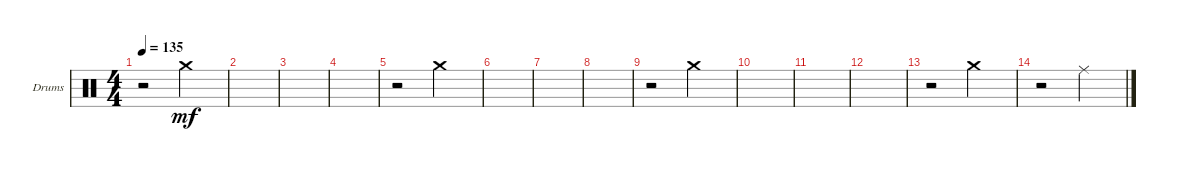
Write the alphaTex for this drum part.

\bracketExtendMode groupsimilarinstruments
\firstSystemTrackNameOrientation horizontal
\otherSystemsTrackNameOrientation horizontal
\track ("OH" "Drums") {instrument percussion}
\staff {score}
\articulation defaults
\ts (4 4)
\tempo 135
\clef neutral
\ks c
r.2{dy mf} "Crash medium (hit)".2 |
|
|
|
r.2 "Crash medium (hit)".2 |
|
|
|
r.2 "Crash medium (hit)".2 |
|
|
|
r.2 "Crash medium (hit)".2 |
r.2 "Ride (middle)".2
